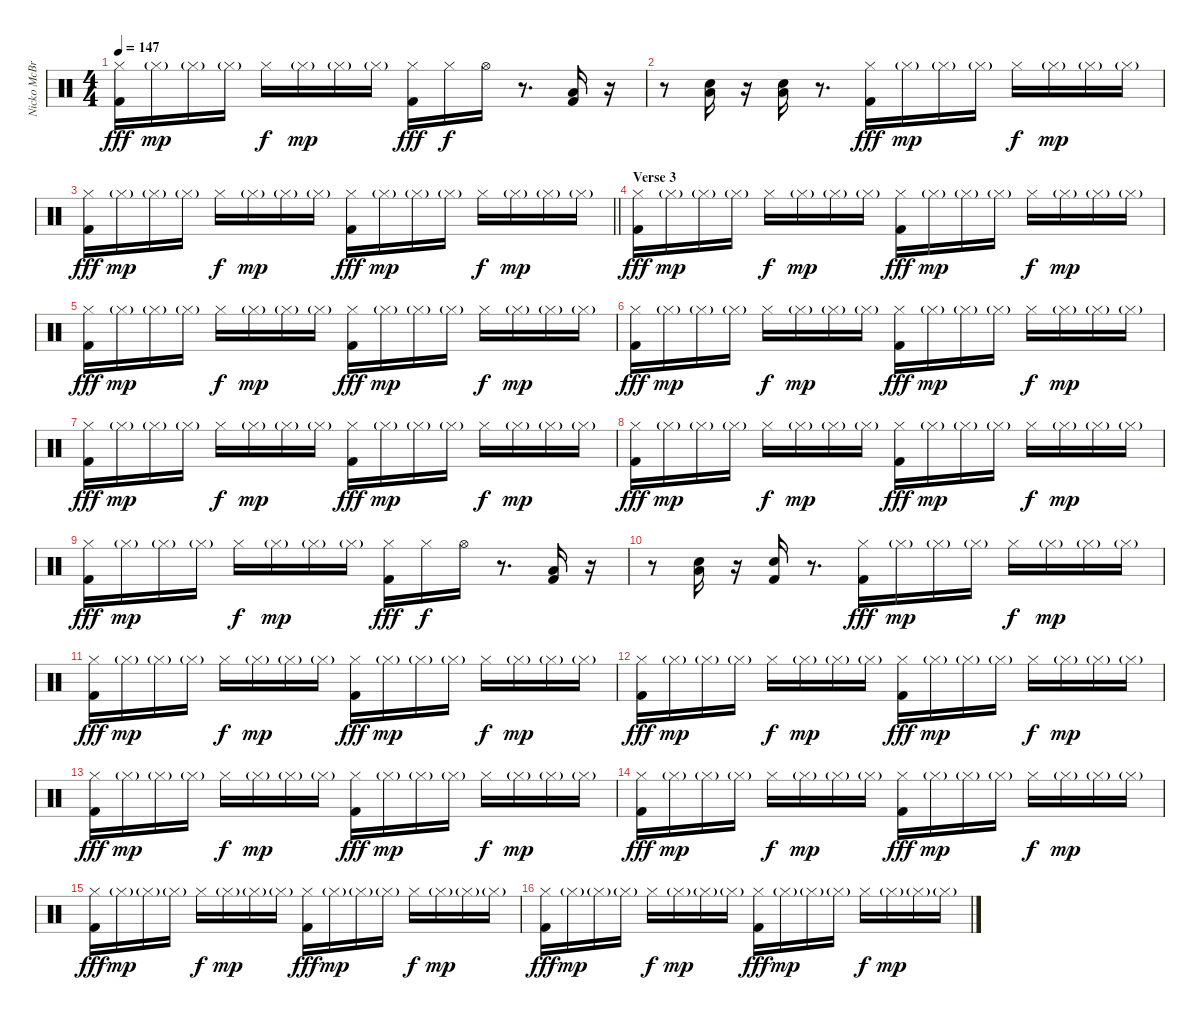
\track ("Nicko McBrain" "Nicko McBr") {instrument percussion}
\staff {score}
\articulation defaults
\ts (4 4)
\tempo 147
\clef neutral
\ks c
("Hi-Hat (closed)" "Kick (hit) 2").16{dy fff} "Hi-Hat (closed)"{g}.16{dy mp} "Hi-Hat (closed)"{g}.16 "Hi-Hat (closed)"{g}.16 "Hi-Hat (closed)".16{dy f} "Hi-Hat (closed)"{g}.16{dy mp} "Hi-Hat (closed)"{g}.16 "Hi-Hat (closed)"{g}.16 ("Hi-Hat (closed)" "Kick (hit) 2").16{dy fff} "Hi-Hat (closed)".16{dy f} "Hi-Hat (open)".16 r.8{d} ("Low Floor Tom (hit)" "Kick (hit) 2").16 r.16 |
r.8 ("Low Floor Tom (hit)" "Snare (hit) 2").16 r.16 ("Low Floor Tom (hit)" "Snare (hit) 2").16 r.8{d} ("Hi-Hat (closed)" "Kick (hit) 2").16{dy fff} "Hi-Hat (closed)"{g}.16{dy mp} "Hi-Hat (closed)"{g}.16 "Hi-Hat (closed)"{g}.16 "Hi-Hat (closed)".16{dy f} "Hi-Hat (closed)"{g}.16{dy mp} "Hi-Hat (closed)"{g}.16 "Hi-Hat (closed)"{g}.16 |
\barLineRight lightlight
("Hi-Hat (closed)" "Kick (hit) 2").16{dy fff} "Hi-Hat (closed)"{g}.16{dy mp} "Hi-Hat (closed)"{g}.16 "Hi-Hat (closed)"{g}.16 "Hi-Hat (closed)".16{dy f} "Hi-Hat (closed)"{g}.16{dy mp} "Hi-Hat (closed)"{g}.16 "Hi-Hat (closed)"{g}.16 ("Hi-Hat (closed)" "Kick (hit) 2").16{dy fff} "Hi-Hat (closed)"{g}.16{dy mp} "Hi-Hat (closed)"{g}.16 "Hi-Hat (closed)"{g}.16 "Hi-Hat (closed)".16{dy f} "Hi-Hat (closed)"{g}.16{dy mp} "Hi-Hat (closed)"{g}.16 "Hi-Hat (closed)"{g}.16 |
\section ("" "Verse 3")
("Hi-Hat (closed)" "Kick (hit) 2").16{dy fff} "Hi-Hat (closed)"{g}.16{dy mp} "Hi-Hat (closed)"{g}.16 "Hi-Hat (closed)"{g}.16 "Hi-Hat (closed)".16{dy f} "Hi-Hat (closed)"{g}.16{dy mp} "Hi-Hat (closed)"{g}.16 "Hi-Hat (closed)"{g}.16 ("Hi-Hat (closed)" "Kick (hit) 2").16{dy fff} "Hi-Hat (closed)"{g}.16{dy mp} "Hi-Hat (closed)"{g}.16 "Hi-Hat (closed)"{g}.16 "Hi-Hat (closed)".16{dy f} "Hi-Hat (closed)"{g}.16{dy mp} "Hi-Hat (closed)"{g}.16 "Hi-Hat (closed)"{g}.16 |
("Hi-Hat (closed)" "Kick (hit) 2").16{dy fff} "Hi-Hat (closed)"{g}.16{dy mp} "Hi-Hat (closed)"{g}.16 "Hi-Hat (closed)"{g}.16 "Hi-Hat (closed)".16{dy f} "Hi-Hat (closed)"{g}.16{dy mp} "Hi-Hat (closed)"{g}.16 "Hi-Hat (closed)"{g}.16 ("Hi-Hat (closed)" "Kick (hit) 2").16{dy fff} "Hi-Hat (closed)"{g}.16{dy mp} "Hi-Hat (closed)"{g}.16 "Hi-Hat (closed)"{g}.16 "Hi-Hat (closed)".16{dy f} "Hi-Hat (closed)"{g}.16{dy mp} "Hi-Hat (closed)"{g}.16 "Hi-Hat (closed)"{g}.16 |
("Hi-Hat (closed)" "Kick (hit) 2").16{dy fff} "Hi-Hat (closed)"{g}.16{dy mp} "Hi-Hat (closed)"{g}.16 "Hi-Hat (closed)"{g}.16 "Hi-Hat (closed)".16{dy f} "Hi-Hat (closed)"{g}.16{dy mp} "Hi-Hat (closed)"{g}.16 "Hi-Hat (closed)"{g}.16 ("Hi-Hat (closed)" "Kick (hit) 2").16{dy fff} "Hi-Hat (closed)"{g}.16{dy mp} "Hi-Hat (closed)"{g}.16 "Hi-Hat (closed)"{g}.16 "Hi-Hat (closed)".16{dy f} "Hi-Hat (closed)"{g}.16{dy mp} "Hi-Hat (closed)"{g}.16 "Hi-Hat (closed)"{g}.16 |
("Hi-Hat (closed)" "Kick (hit) 2").16{dy fff} "Hi-Hat (closed)"{g}.16{dy mp} "Hi-Hat (closed)"{g}.16 "Hi-Hat (closed)"{g}.16 "Hi-Hat (closed)".16{dy f} "Hi-Hat (closed)"{g}.16{dy mp} "Hi-Hat (closed)"{g}.16 "Hi-Hat (closed)"{g}.16 ("Hi-Hat (closed)" "Kick (hit) 2").16{dy fff} "Hi-Hat (closed)"{g}.16{dy mp} "Hi-Hat (closed)"{g}.16 "Hi-Hat (closed)"{g}.16 "Hi-Hat (closed)".16{dy f} "Hi-Hat (closed)"{g}.16{dy mp} "Hi-Hat (closed)"{g}.16 "Hi-Hat (closed)"{g}.16 |
("Hi-Hat (closed)" "Kick (hit) 2").16{dy fff} "Hi-Hat (closed)"{g}.16{dy mp} "Hi-Hat (closed)"{g}.16 "Hi-Hat (closed)"{g}.16 "Hi-Hat (closed)".16{dy f} "Hi-Hat (closed)"{g}.16{dy mp} "Hi-Hat (closed)"{g}.16 "Hi-Hat (closed)"{g}.16 ("Hi-Hat (closed)" "Kick (hit) 2").16{dy fff} "Hi-Hat (closed)"{g}.16{dy mp} "Hi-Hat (closed)"{g}.16 "Hi-Hat (closed)"{g}.16 "Hi-Hat (closed)".16{dy f} "Hi-Hat (closed)"{g}.16{dy mp} "Hi-Hat (closed)"{g}.16 "Hi-Hat (closed)"{g}.16 |
("Hi-Hat (closed)" "Kick (hit) 2").16{dy fff} "Hi-Hat (closed)"{g}.16{dy mp} "Hi-Hat (closed)"{g}.16 "Hi-Hat (closed)"{g}.16 "Hi-Hat (closed)".16{dy f} "Hi-Hat (closed)"{g}.16{dy mp} "Hi-Hat (closed)"{g}.16 "Hi-Hat (closed)"{g}.16 ("Hi-Hat (closed)" "Kick (hit) 2").16{dy fff} "Hi-Hat (closed)".16{dy f} "Hi-Hat (open)".16 r.8{d} ("Low Floor Tom (hit)" "Kick (hit) 2").16 r.16 |
r.8 ("Low Floor Tom (hit)" "Snare (hit) 2").16 r.16 ("Snare (hit) 2" "Kick (hit) 2").16 r.8{d} ("Hi-Hat (closed)" "Kick (hit) 2").16{dy fff} "Hi-Hat (closed)"{g}.16{dy mp} "Hi-Hat (closed)"{g}.16 "Hi-Hat (closed)"{g}.16 "Hi-Hat (closed)".16{dy f} "Hi-Hat (closed)"{g}.16{dy mp} "Hi-Hat (closed)"{g}.16 "Hi-Hat (closed)"{g}.16 |
("Hi-Hat (closed)" "Kick (hit) 2").16{dy fff} "Hi-Hat (closed)"{g}.16{dy mp} "Hi-Hat (closed)"{g}.16 "Hi-Hat (closed)"{g}.16 "Hi-Hat (closed)".16{dy f} "Hi-Hat (closed)"{g}.16{dy mp} "Hi-Hat (closed)"{g}.16 "Hi-Hat (closed)"{g}.16 ("Hi-Hat (closed)" "Kick (hit) 2").16{dy fff} "Hi-Hat (closed)"{g}.16{dy mp} "Hi-Hat (closed)"{g}.16 "Hi-Hat (closed)"{g}.16 "Hi-Hat (closed)".16{dy f} "Hi-Hat (closed)"{g}.16{dy mp} "Hi-Hat (closed)"{g}.16 "Hi-Hat (closed)"{g}.16 |
("Hi-Hat (closed)" "Kick (hit) 2").16{dy fff} "Hi-Hat (closed)"{g}.16{dy mp} "Hi-Hat (closed)"{g}.16 "Hi-Hat (closed)"{g}.16 "Hi-Hat (closed)".16{dy f} "Hi-Hat (closed)"{g}.16{dy mp} "Hi-Hat (closed)"{g}.16 "Hi-Hat (closed)"{g}.16 ("Hi-Hat (closed)" "Kick (hit) 2").16{dy fff} "Hi-Hat (closed)"{g}.16{dy mp} "Hi-Hat (closed)"{g}.16 "Hi-Hat (closed)"{g}.16 "Hi-Hat (closed)".16{dy f} "Hi-Hat (closed)"{g}.16{dy mp} "Hi-Hat (closed)"{g}.16 "Hi-Hat (closed)"{g}.16 |
("Hi-Hat (closed)" "Kick (hit) 2").16{dy fff} "Hi-Hat (closed)"{g}.16{dy mp} "Hi-Hat (closed)"{g}.16 "Hi-Hat (closed)"{g}.16 "Hi-Hat (closed)".16{dy f} "Hi-Hat (closed)"{g}.16{dy mp} "Hi-Hat (closed)"{g}.16 "Hi-Hat (closed)"{g}.16 ("Hi-Hat (closed)" "Kick (hit) 2").16{dy fff} "Hi-Hat (closed)"{g}.16{dy mp} "Hi-Hat (closed)"{g}.16 "Hi-Hat (closed)"{g}.16 "Hi-Hat (closed)".16{dy f} "Hi-Hat (closed)"{g}.16{dy mp} "Hi-Hat (closed)"{g}.16 "Hi-Hat (closed)"{g}.16 |
("Hi-Hat (closed)" "Kick (hit) 2").16{dy fff} "Hi-Hat (closed)"{g}.16{dy mp} "Hi-Hat (closed)"{g}.16 "Hi-Hat (closed)"{g}.16 "Hi-Hat (closed)".16{dy f} "Hi-Hat (closed)"{g}.16{dy mp} "Hi-Hat (closed)"{g}.16 "Hi-Hat (closed)"{g}.16 ("Hi-Hat (closed)" "Kick (hit) 2").16{dy fff} "Hi-Hat (closed)"{g}.16{dy mp} "Hi-Hat (closed)"{g}.16 "Hi-Hat (closed)"{g}.16 "Hi-Hat (closed)".16{dy f} "Hi-Hat (closed)"{g}.16{dy mp} "Hi-Hat (closed)"{g}.16 "Hi-Hat (closed)"{g}.16 |
("Hi-Hat (closed)" "Kick (hit) 2").16{dy fff} "Hi-Hat (closed)"{g}.16{dy mp} "Hi-Hat (closed)"{g}.16 "Hi-Hat (closed)"{g}.16 "Hi-Hat (closed)".16{dy f} "Hi-Hat (closed)"{g}.16{dy mp} "Hi-Hat (closed)"{g}.16 "Hi-Hat (closed)"{g}.16 ("Hi-Hat (closed)" "Kick (hit) 2").16{dy fff} "Hi-Hat (closed)"{g}.16{dy mp} "Hi-Hat (closed)"{g}.16 "Hi-Hat (closed)"{g}.16 "Hi-Hat (closed)".16{dy f} "Hi-Hat (closed)"{g}.16{dy mp} "Hi-Hat (closed)"{g}.16 "Hi-Hat (closed)"{g}.16 |
("Hi-Hat (closed)" "Kick (hit) 2").16{dy fff} "Hi-Hat (closed)"{g}.16{dy mp} "Hi-Hat (closed)"{g}.16 "Hi-Hat (closed)"{g}.16 "Hi-Hat (closed)".16{dy f} "Hi-Hat (closed)"{g}.16{dy mp} "Hi-Hat (closed)"{g}.16 "Hi-Hat (closed)"{g}.16 ("Hi-Hat (closed)" "Kick (hit) 2").16{dy fff} "Hi-Hat (closed)"{g}.16{dy mp} "Hi-Hat (closed)"{g}.16 "Hi-Hat (closed)"{g}.16 "Hi-Hat (closed)".16{dy f} "Hi-Hat (closed)"{g}.16{dy mp} "Hi-Hat (closed)"{g}.16 "Hi-Hat (closed)"{g}.16
